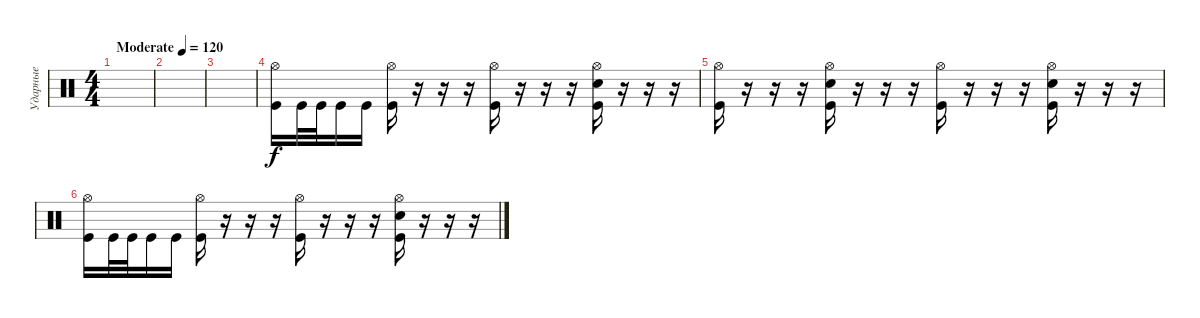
\track ("Ударные" "Ударные") {instrument percussion}
\staff {score}
\articulation defaults
\ts (4 4)
\tempo (120 "Moderate")
\clef neutral
\ks c
|
|
|
("Hi-Hat (open)" "Kick (hit)").16 "Kick (hit)".32 "Kick (hit)".32 "Kick (hit)".16 "Kick (hit)".16 ("Hi-Hat (open)" "Kick (hit)").16 r.16 r.16 r.16 ("Hi-Hat (open)" "Kick (hit)").16 r.16 r.16 r.16 ("Hi-Hat (open)" "Electric Snare (hit)" "Kick (hit)").16 r.16 r.16 r.16 |
("Hi-Hat (open)" "Kick (hit)").16 r.16 r.16 r.16 ("Hi-Hat (open)" "Electric Snare (hit)" "Kick (hit)").16 r.16 r.16 r.16 ("Hi-Hat (open)" "Kick (hit)").16 r.16 r.16 r.16 ("Hi-Hat (open)" "Electric Snare (hit)" "Kick (hit)").16 r.16 r.16 r.16 |
("Hi-Hat (open)" "Kick (hit)").16 "Kick (hit)".32 "Kick (hit)".32 "Kick (hit)".16 "Kick (hit)".16 ("Hi-Hat (open)" "Kick (hit)").16 r.16 r.16 r.16 ("Hi-Hat (open)" "Kick (hit)").16 r.16 r.16 r.16 ("Hi-Hat (open)" "Electric Snare (hit)" "Kick (hit)").16 r.16 r.16 r.16
